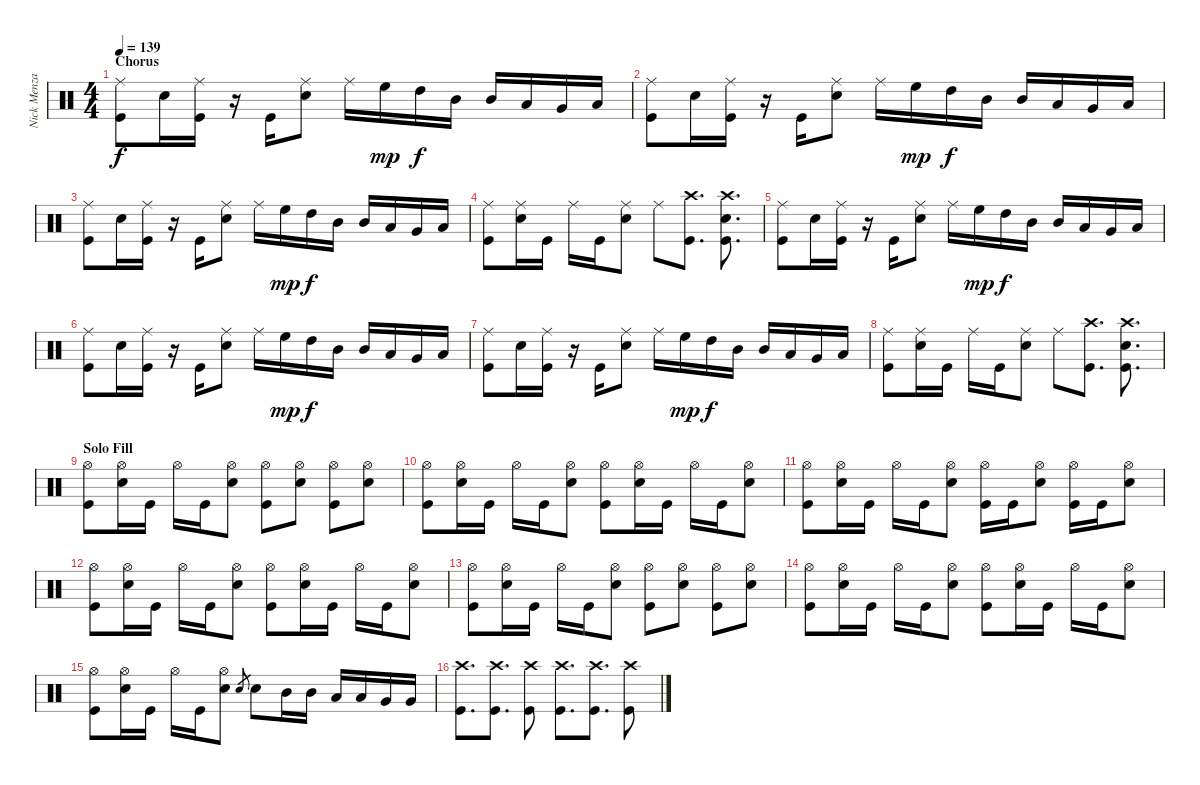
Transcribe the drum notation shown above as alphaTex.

\track ("Nick Menza" "Nick Menza") {instrument percussion}
\staff {score}
\articulation defaults
\ts (4 4)
\section ("" "Chorus")
\tempo 139
\clef neutral
\ks c
("Ride (middle)" "Kick (hit)").8{dy f} "Snare (hit) 2".16 ("Ride (middle)" "Kick (hit)").16 r.16 "Kick (hit)".16 ("Ride (middle)" "Snare (hit) 2").8 "Ride (middle)".16 "High Floor Tom (hit)".16{dy mp} "High Tom (hit)".16{dy f} "Mid Tom (hit)".16 "Mid Tom (hit)".16 "Low Tom (hit)".16 "Very Low Tom (hit)".16 "Low Floor Tom (hit)".16 |
("Ride (middle)" "Kick (hit)").8 "Snare (hit) 2".16 ("Ride (middle)" "Kick (hit)").16 r.16 "Kick (hit)".16 ("Ride (middle)" "Snare (hit) 2").8 "Ride (middle)".16 "High Floor Tom (hit)".16{dy mp} "High Tom (hit)".16{dy f} "Mid Tom (hit)".16 "Mid Tom (hit)".16 "Low Tom (hit)".16 "Very Low Tom (hit)".16 "Low Floor Tom (hit)".16 |
("Ride (middle)" "Kick (hit)").8 "Snare (hit) 2".16 ("Ride (middle)" "Kick (hit)").16 r.16 "Kick (hit)".16 ("Ride (middle)" "Snare (hit) 2").8 "Ride (middle)".16 "High Floor Tom (hit)".16{dy mp} "High Tom (hit)".16{dy f} "Mid Tom (hit)".16 "Mid Tom (hit)".16 "Low Tom (hit)".16 "Very Low Tom (hit)".16 "Low Floor Tom (hit)".16 |
("Ride (middle)" "Kick (hit)").8 ("Ride (middle)" "Snare (hit) 2").16 "Kick (hit)".16 "Ride (middle)".16 "Kick (hit)".16 ("Ride (middle)" "Snare (hit) 2").8 "Ride (middle)".8 ("Crash high (hit)" "Kick (hit)").8{d} ("Crash high (hit)" "Snare (hit) 2" "Kick (hit)").8{d} |
("Ride (middle)" "Kick (hit)").8 "Snare (hit) 2".16 ("Ride (middle)" "Kick (hit)").16 r.16 "Kick (hit)".16 ("Ride (middle)" "Snare (hit) 2").8 "Ride (middle)".16 "High Floor Tom (hit)".16{dy mp} "High Tom (hit)".16{dy f} "Mid Tom (hit)".16 "Mid Tom (hit)".16 "Low Tom (hit)".16 "Very Low Tom (hit)".16 "Low Floor Tom (hit)".16 |
("Ride (middle)" "Kick (hit)").8 "Snare (hit) 2".16 ("Ride (middle)" "Kick (hit)").16 r.16 "Kick (hit)".16 ("Ride (middle)" "Snare (hit) 2").8 "Ride (middle)".16 "High Floor Tom (hit)".16{dy mp} "High Tom (hit)".16{dy f} "Mid Tom (hit)".16 "Mid Tom (hit)".16 "Low Tom (hit)".16 "Very Low Tom (hit)".16 "Low Floor Tom (hit)".16 |
("Ride (middle)" "Kick (hit)").8 "Snare (hit) 2".16 ("Ride (middle)" "Kick (hit)").16 r.16 "Kick (hit)".16 ("Ride (middle)" "Snare (hit) 2").8 "Ride (middle)".16 "High Floor Tom (hit)".16{dy mp} "High Tom (hit)".16{dy f} "Mid Tom (hit)".16 "Mid Tom (hit)".16 "Low Tom (hit)".16 "Very Low Tom (hit)".16 "Low Floor Tom (hit)".16 |
("Ride (middle)" "Kick (hit)").8 ("Ride (middle)" "Snare (hit) 2").16 "Kick (hit)".16 "Ride (middle)".16 "Kick (hit)".16 ("Ride (middle)" "Snare (hit) 2").8 "Ride (middle)".8 ("Crash high (hit)" "Kick (hit)").8{d} ("Crash high (hit)" "Snare (hit) 2" "Kick (hit)").8{d} |
\section ("" "Solo Fill")
("Hi-Hat (open)" "Kick (hit)").8 ("Hi-Hat (open)" "Snare (hit) 2").16 "Kick (hit)".16 "Hi-Hat (open)".16 "Kick (hit)".16 ("Hi-Hat (open)" "Snare (hit) 2").8 ("Hi-Hat (open)" "Kick (hit)").8 ("Hi-Hat (open)" "Snare (hit) 2").8 ("Hi-Hat (open)" "Kick (hit)").8 ("Hi-Hat (open)" "Snare (hit) 2").8 |
("Hi-Hat (open)" "Kick (hit)").8 ("Hi-Hat (open)" "Snare (hit) 2").16 "Kick (hit)".16 "Hi-Hat (open)".16 "Kick (hit)".16 ("Hi-Hat (open)" "Snare (hit) 2").8 ("Hi-Hat (open)" "Kick (hit)").8 ("Hi-Hat (open)" "Snare (hit) 2").16 "Kick (hit)".16 "Hi-Hat (open)".16 "Kick (hit)".16 ("Hi-Hat (open)" "Snare (hit) 2").8 |
("Hi-Hat (open)" "Kick (hit)").8 ("Hi-Hat (open)" "Snare (hit) 2").16 "Kick (hit)".16 "Hi-Hat (open)".16 "Kick (hit)".16 ("Hi-Hat (open)" "Snare (hit) 2").8 ("Hi-Hat (open)" "Kick (hit)").16 "Kick (hit)".16 ("Hi-Hat (open)" "Snare (hit) 2").8 ("Hi-Hat (open)" "Kick (hit)").16 "Kick (hit)".16 ("Hi-Hat (open)" "Snare (hit) 2").8 |
("Hi-Hat (open)" "Kick (hit)").8 ("Hi-Hat (open)" "Snare (hit) 2").16 "Kick (hit)".16 "Hi-Hat (open)".16 "Kick (hit)".16 ("Hi-Hat (open)" "Snare (hit) 2").8 ("Hi-Hat (open)" "Kick (hit)").8 ("Hi-Hat (open)" "Snare (hit) 2").16 "Kick (hit)".16 "Hi-Hat (open)".16 "Kick (hit)".16 ("Hi-Hat (open)" "Snare (hit) 2").8 |
("Hi-Hat (open)" "Kick (hit)").8 ("Hi-Hat (open)" "Snare (hit) 2").16 "Kick (hit)".16 "Hi-Hat (open)".16 "Kick (hit)".16 ("Hi-Hat (open)" "Snare (hit) 2").8 ("Hi-Hat (open)" "Kick (hit)").8 ("Hi-Hat (open)" "Snare (hit) 2").8 ("Hi-Hat (open)" "Kick (hit)").8 ("Hi-Hat (open)" "Snare (hit) 2").8 |
("Hi-Hat (open)" "Kick (hit)").8 ("Hi-Hat (open)" "Snare (hit) 2").16 "Kick (hit)".16 "Hi-Hat (open)".16 "Kick (hit)".16 ("Hi-Hat (open)" "Snare (hit) 2").8 ("Hi-Hat (open)" "Kick (hit)").8 ("Hi-Hat (open)" "Snare (hit) 2").16 "Kick (hit)".16 "Hi-Hat (open)".16 "Kick (hit)".16 ("Hi-Hat (open)" "Snare (hit) 2").8 |
("Hi-Hat (open)" "Kick (hit)").8 ("Hi-Hat (open)" "Snare (hit) 2").16 "Kick (hit)".16 "Hi-Hat (open)".16 "Kick (hit)".16 ("Hi-Hat (open)" "Snare (hit) 2").8 "Snare (hit) 2".8{gr} "Snare (hit) 2".8 "Mid Tom (hit)".16 "Mid Tom (hit)".16 "Low Tom (hit)".16 "Low Tom (hit)".16 "Very Low Tom (hit)".16 "Very Low Tom (hit)".16 |
("Crash high (hit)" "Kick (hit)").8{d} ("Crash high (hit)" "Kick (hit)").8{d} ("Crash high (hit)" "Kick (hit)").8 ("Crash high (hit)" "Kick (hit)").8{d} ("Crash high (hit)" "Kick (hit)").8{d} ("Crash high (hit)" "Kick (hit)").8
